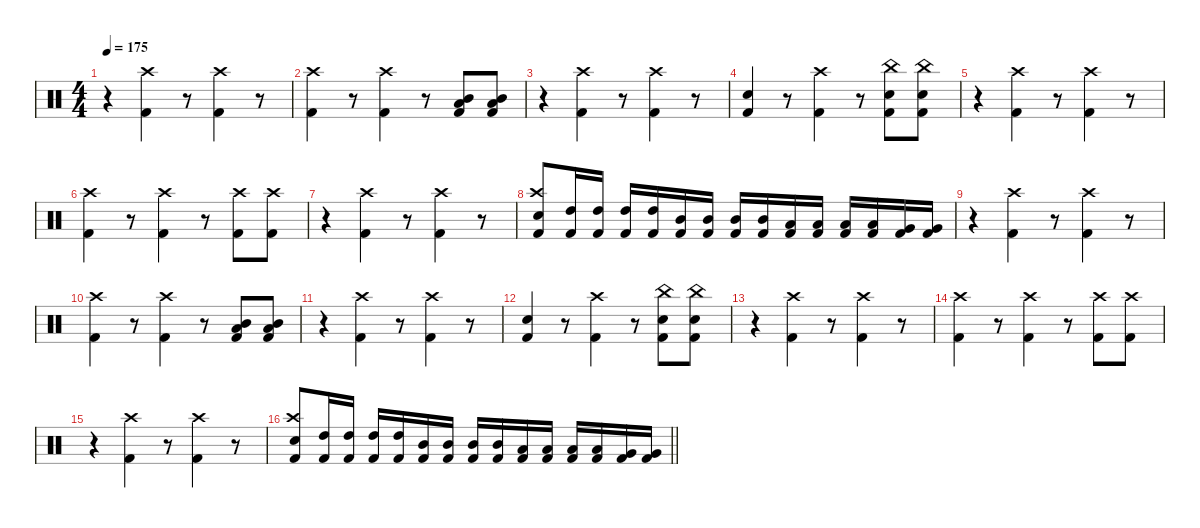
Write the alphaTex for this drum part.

\defaultSystemsLayout 4
\hideDynamics
\bracketExtendMode nobrackets
\singleTrackTrackNamePolicy hidden
\multiTrackTrackNamePolicy hidden
\firstSystemTrackNameMode fullname
\firstSystemTrackNameOrientation horizontal
\otherSystemsTrackNameOrientation horizontal
\track ("Fredrik Andersson" "drm.") {instrument percussion}
\staff {score}
\articulation defaults
\ts (4 4)
\tempo 175
\clef neutral
\ks c
r.4{dy f beam Down} ("Crash high (hit)" "Kick (hit) 2").4{beam Down} r.8{beam Down} ("Crash high (hit)" "Kick (hit) 2").4{beam Down} r.8{beam Down} |
("Crash high (hit)" "Kick (hit) 2").4{beam Down} r.8{beam Down} ("Crash high (hit)" "Kick (hit) 2").4{beam Down} r.8{beam Down} ("Mid Tom (hit)" "Low Tom (hit)" "Kick (hit) 2").8{beam Up} ("Mid Tom (hit)" "Low Tom (hit)" "Kick (hit) 2").8{beam Up} |
r.4{beam Down} ("Crash high (hit)" "Kick (hit) 2").4{beam Down} r.8{beam Down} ("Crash high (hit)" "Kick (hit) 2").4{beam Down} r.8{beam Down} |
("Snare (hit) 2" "Kick (hit) 2").4{beam Up} r.8{beam Up} ("Crash high (hit)" "Kick (hit) 2").4{beam Down} r.8{beam Down} ("China (hit)" "Snare (hit) 2" "Kick (hit) 2").8{beam Down} ("China (hit)" "Snare (hit) 2" "Kick (hit) 2").8{beam Down} |
r.4{beam Down} ("Crash high (hit)" "Kick (hit) 2").4{beam Down} r.8{beam Down} ("Crash high (hit)" "Kick (hit) 2").4{beam Down} r.8{beam Down} |
("Crash high (hit)" "Kick (hit) 2").4{beam Down} r.8{beam Down} ("Crash high (hit)" "Kick (hit) 2").4{beam Down} r.8{beam Down} ("Crash high (hit)" "Kick (hit) 2").8{beam Down} ("Crash high (hit)" "Kick (hit) 2").8{beam Down} |
r.4{beam Down} ("Crash high (hit)" "Kick (hit) 2").4{beam Down} r.8{beam Down} ("Crash high (hit)" "Kick (hit) 2").4{beam Down} r.8{beam Down} |
("Crash high (hit)" "Snare (hit) 2" "Kick (hit) 2").8{beam Up} ("High Tom (hit)" "Kick (hit) 2").16{beam Up} ("High Tom (hit)" "Kick (hit) 2").16{beam Up} ("High Tom (hit)" "Kick (hit) 2").16{beam Up} ("High Tom (hit)" "Kick (hit) 2").16{beam Up} ("Mid Tom (hit)" "Kick (hit) 2").16{beam Up} ("Mid Tom (hit)" "Kick (hit) 2").16{beam Up} ("Mid Tom (hit)" "Kick (hit) 2").16{beam Up} ("Mid Tom (hit)" "Kick (hit) 2").16{beam Up} ("Low Tom (hit)" "Kick (hit) 2").16{beam Up} ("Low Tom (hit)" "Kick (hit) 2").16{beam Up} ("Low Tom (hit)" "Kick (hit) 2").16{beam Up} ("Low Tom (hit)" "Kick (hit) 2").16{beam Up} ("Very Low Tom (hit)" "Kick (hit) 2").16{beam Up} ("Very Low Tom (hit)" "Kick (hit) 2").16{beam Up} |
r.4{beam Down} ("Crash high (hit)" "Kick (hit) 2").4{beam Down} r.8{beam Down} ("Crash high (hit)" "Kick (hit) 2").4{beam Down} r.8{beam Down} |
("Crash high (hit)" "Kick (hit) 2").4{beam Down} r.8{beam Down} ("Crash high (hit)" "Kick (hit) 2").4{beam Down} r.8{beam Down} ("Mid Tom (hit)" "Low Tom (hit)" "Kick (hit) 2").8{beam Up} ("Mid Tom (hit)" "Low Tom (hit)" "Kick (hit) 2").8{beam Up} |
r.4{beam Down} ("Crash high (hit)" "Kick (hit) 2").4{beam Down} r.8{beam Down} ("Crash high (hit)" "Kick (hit) 2").4{beam Down} r.8{beam Down} |
("Snare (hit) 2" "Kick (hit) 2").4{beam Up} r.8{beam Up} ("Crash high (hit)" "Kick (hit) 2").4{beam Down} r.8{beam Down} ("China (hit)" "Snare (hit) 2" "Kick (hit) 2").8{beam Down} ("China (hit)" "Snare (hit) 2" "Kick (hit) 2").8{beam Down} |
r.4{beam Down} ("Crash high (hit)" "Kick (hit) 2").4{beam Down} r.8{beam Down} ("Crash high (hit)" "Kick (hit) 2").4{beam Down} r.8{beam Down} |
("Crash high (hit)" "Kick (hit) 2").4{beam Down} r.8{beam Down} ("Crash high (hit)" "Kick (hit) 2").4{beam Down} r.8{beam Down} ("Crash high (hit)" "Kick (hit) 2").8{beam Down} ("Crash high (hit)" "Kick (hit) 2").8{beam Down} |
r.4{beam Down} ("Crash high (hit)" "Kick (hit) 2").4{beam Down} r.8{beam Down} ("Crash high (hit)" "Kick (hit) 2").4{beam Down} r.8{beam Down} |
\barLineRight lightlight
("Crash high (hit)" "Snare (hit) 2" "Kick (hit) 2").8{beam Up} ("High Tom (hit)" "Kick (hit) 2").16{beam Up} ("High Tom (hit)" "Kick (hit) 2").16{beam Up} ("High Tom (hit)" "Kick (hit) 2").16{beam Up} ("High Tom (hit)" "Kick (hit) 2").16{beam Up} ("Mid Tom (hit)" "Kick (hit) 2").16{beam Up} ("Mid Tom (hit)" "Kick (hit) 2").16{beam Up} ("Mid Tom (hit)" "Kick (hit) 2").16{beam Up} ("Mid Tom (hit)" "Kick (hit) 2").16{beam Up} ("Low Tom (hit)" "Kick (hit) 2").16{beam Up} ("Low Tom (hit)" "Kick (hit) 2").16{beam Up} ("Low Tom (hit)" "Kick (hit) 2").16{beam Up} ("Low Tom (hit)" "Kick (hit) 2").16{beam Up} ("Very Low Tom (hit)" "Kick (hit) 2").16{beam Up} ("Very Low Tom (hit)" "Kick (hit) 2").16{beam Up}
